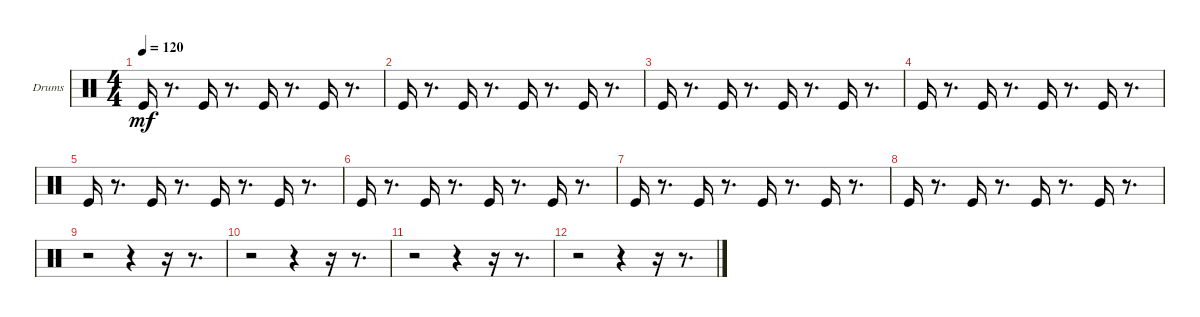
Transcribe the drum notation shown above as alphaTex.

\bracketExtendMode groupsimilarinstruments
\firstSystemTrackNameOrientation horizontal
\otherSystemsTrackNameOrientation horizontal
\track ("Drums" "Drums") {instrument percussion}
\staff {score}
\articulation defaults
\ts (4 4)
\tempo 120
\clef neutral
\ks c "Kick (hit)".16{dy mf}
r.8{d} "Kick (hit)".16 r.8{d} "Kick (hit)".16 r.8{d} "Kick (hit)".16 r.8{d} |
"Kick (hit)".16 r.8{d} "Kick (hit)".16 r.8{d} "Kick (hit)".16 r.8{d} "Kick (hit)".16 r.8{d} |
"Kick (hit)".16 r.8{d} "Kick (hit)".16 r.8{d} "Kick (hit)".16 r.8{d} "Kick (hit)".16 r.8{d} |
"Kick (hit)".16 r.8{d} "Kick (hit)".16 r.8{d} "Kick (hit)".16 r.8{d} "Kick (hit)".16 r.8{d} |
"Kick (hit)".16 r.8{d} "Kick (hit)".16 r.8{d} "Kick (hit)".16 r.8{d} "Kick (hit)".16 r.8{d} |
"Kick (hit)".16 r.8{d} "Kick (hit)".16 r.8{d} "Kick (hit)".16 r.8{d} "Kick (hit)".16 r.8{d} |
"Kick (hit)".16 r.8{d} "Kick (hit)".16 r.8{d} "Kick (hit)".16 r.8{d} "Kick (hit)".16 r.8{d} |
"Kick (hit)".16 r.8{d} "Kick (hit)".16 r.8{d} "Kick (hit)".16 r.8{d} "Kick (hit)".16 r.8{d} |
r.2 r.4 r.16 r.8{d} |
r.2 r.4 r.16 r.8{d} |
r.2 r.4 r.16 r.8{d} |
r.2 r.4 r.16 r.8{d}
